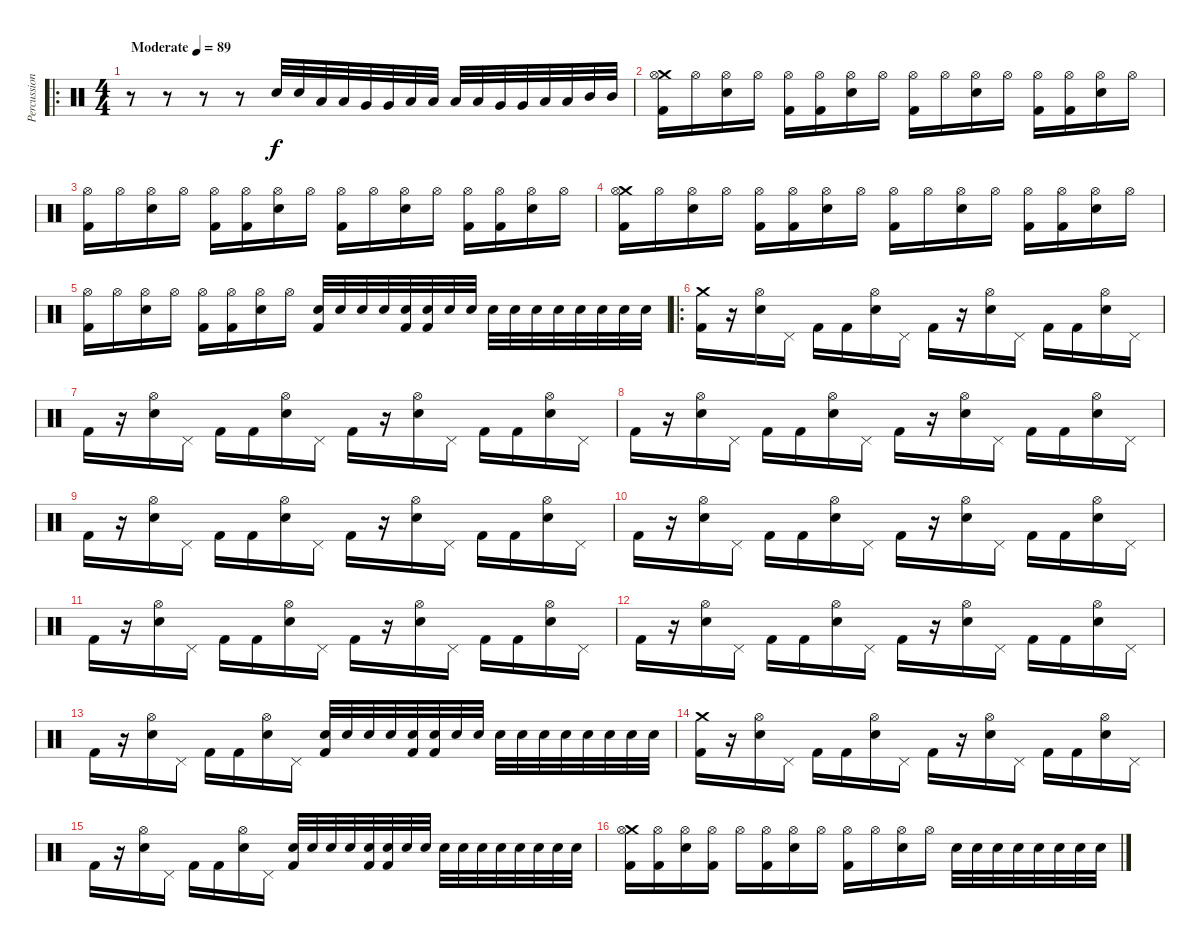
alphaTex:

\track ("Percussion" "Percussion") {instrument percussion}
\staff {score}
\articulation defaults
\ro
\ts (4 4)
\tempo (89 "Moderate")
\clef neutral
\ks c
r.8{dy f} r.8 r.8 r.8 "Electric Snare (hit)".32 "Electric Snare (hit)".32 "Low Floor Tom (hit)".32 "Low Floor Tom (hit)".32 "Very Low Tom (hit)".32 "Very Low Tom (hit)".32 "Low Tom (hit)".32 "Low Tom (hit)".32 "Low Floor Tom (hit)".32 "Low Floor Tom (hit)".32 "Very Low Tom (hit)".32 "Very Low Tom (hit)".32 "Low Tom (hit)".32 "Low Tom (hit)".32 "Mid Tom (hit)".32 "Mid Tom (hit)".32 |
("Crash medium (hit)" "Hi-Hat (open)" "Kick (hit) 2").16 "Hi-Hat (open)".16 ("Hi-Hat (open)" "Electric Snare (hit)").16 "Hi-Hat (open)".16 ("Hi-Hat (open)" "Kick (hit) 2").16 ("Hi-Hat (open)" "Kick (hit) 2").16 ("Hi-Hat (open)" "Electric Snare (hit)").16 "Hi-Hat (open)".16 ("Hi-Hat (open)" "Kick (hit) 2").16 "Hi-Hat (open)".16 ("Hi-Hat (open)" "Electric Snare (hit)").16 "Hi-Hat (open)".16 ("Hi-Hat (open)" "Kick (hit) 2").16 ("Hi-Hat (open)" "Kick (hit) 2").16 ("Hi-Hat (open)" "Electric Snare (hit)").16 "Hi-Hat (open)".16 |
("Hi-Hat (open)" "Kick (hit) 2").16 "Hi-Hat (open)".16 ("Hi-Hat (open)" "Electric Snare (hit)").16 "Hi-Hat (open)".16 ("Hi-Hat (open)" "Kick (hit) 2").16 ("Hi-Hat (open)" "Kick (hit) 2").16 ("Hi-Hat (open)" "Electric Snare (hit)").16 "Hi-Hat (open)".16 ("Hi-Hat (open)" "Kick (hit) 2").16 "Hi-Hat (open)".16 ("Hi-Hat (open)" "Electric Snare (hit)").16 "Hi-Hat (open)".16 ("Hi-Hat (open)" "Kick (hit) 2").16 ("Hi-Hat (open)" "Kick (hit) 2").16 ("Hi-Hat (open)" "Electric Snare (hit)").16 "Hi-Hat (open)".16 |
("Crash medium (hit)" "Hi-Hat (open)" "Kick (hit) 2").16 "Hi-Hat (open)".16 ("Hi-Hat (open)" "Electric Snare (hit)").16 "Hi-Hat (open)".16 ("Hi-Hat (open)" "Kick (hit) 2").16 ("Hi-Hat (open)" "Kick (hit) 2").16 ("Hi-Hat (open)" "Electric Snare (hit)").16 "Hi-Hat (open)".16 ("Hi-Hat (open)" "Kick (hit) 2").16 "Hi-Hat (open)".16 ("Hi-Hat (open)" "Electric Snare (hit)").16 "Hi-Hat (open)".16 ("Hi-Hat (open)" "Kick (hit) 2").16 ("Hi-Hat (open)" "Kick (hit) 2").16 ("Hi-Hat (open)" "Electric Snare (hit)").16 "Hi-Hat (open)".16 |
("Hi-Hat (open)" "Kick (hit) 2").16 "Hi-Hat (open)".16 ("Hi-Hat (open)" "Electric Snare (hit)").16 "Hi-Hat (open)".16 ("Hi-Hat (open)" "Kick (hit) 2").16 ("Hi-Hat (open)" "Kick (hit) 2").16 ("Hi-Hat (open)" "Electric Snare (hit)").16 "Hi-Hat (open)".16 ("Electric Snare (hit)" "Kick (hit) 2").32 "Electric Snare (hit)".32 "Electric Snare (hit)".32 "Electric Snare (hit)".32 ("Electric Snare (hit)" "Kick (hit) 2").32 ("Electric Snare (hit)" "Kick (hit) 2").32 "Electric Snare (hit)".32 "Electric Snare (hit)".32 "Electric Snare (hit)".32 "Electric Snare (hit)".32 "Electric Snare (hit)".32 "Electric Snare (hit)".32 "Electric Snare (hit)".32 "Electric Snare (hit)".32 "Electric Snare (hit)".32 "Electric Snare (hit)".32 |
\ro
("Crash medium (hit)" "Kick (hit) 2").16 r.16 ("Hi-Hat (open)" "Electric Snare (hit)").16 "Pedal Hi-Hat (hit)".16 "Kick (hit) 2".16 "Kick (hit) 2".16 ("Hi-Hat (open)" "Electric Snare (hit)").16 "Pedal Hi-Hat (hit)".16 "Kick (hit) 2".16 r.16 ("Hi-Hat (open)" "Electric Snare (hit)").16 "Pedal Hi-Hat (hit)".16 "Kick (hit) 2".16 "Kick (hit) 2".16 ("Hi-Hat (open)" "Electric Snare (hit)").16 "Pedal Hi-Hat (hit)".16 |
"Kick (hit) 2".16 r.16 ("Hi-Hat (open)" "Electric Snare (hit)").16 "Pedal Hi-Hat (hit)".16 "Kick (hit) 2".16 "Kick (hit) 2".16 ("Hi-Hat (open)" "Electric Snare (hit)").16 "Pedal Hi-Hat (hit)".16 "Kick (hit) 2".16 r.16 ("Hi-Hat (open)" "Electric Snare (hit)").16 "Pedal Hi-Hat (hit)".16 "Kick (hit) 2".16 "Kick (hit) 2".16 ("Hi-Hat (open)" "Electric Snare (hit)").16 "Pedal Hi-Hat (hit)".16 |
"Kick (hit) 2".16 r.16 ("Hi-Hat (open)" "Electric Snare (hit)").16 "Pedal Hi-Hat (hit)".16 "Kick (hit) 2".16 "Kick (hit) 2".16 ("Hi-Hat (open)" "Electric Snare (hit)").16 "Pedal Hi-Hat (hit)".16 "Kick (hit) 2".16 r.16 ("Hi-Hat (open)" "Electric Snare (hit)").16 "Pedal Hi-Hat (hit)".16 "Kick (hit) 2".16 "Kick (hit) 2".16 ("Hi-Hat (open)" "Electric Snare (hit)").16 "Pedal Hi-Hat (hit)".16 |
"Kick (hit) 2".16 r.16 ("Hi-Hat (open)" "Electric Snare (hit)").16 "Pedal Hi-Hat (hit)".16 "Kick (hit) 2".16 "Kick (hit) 2".16 ("Hi-Hat (open)" "Electric Snare (hit)").16 "Pedal Hi-Hat (hit)".16 "Kick (hit) 2".16 r.16 ("Hi-Hat (open)" "Electric Snare (hit)").16 "Pedal Hi-Hat (hit)".16 "Kick (hit) 2".16 "Kick (hit) 2".16 ("Hi-Hat (open)" "Electric Snare (hit)").16 "Pedal Hi-Hat (hit)".16 |
"Kick (hit) 2".16 r.16 ("Hi-Hat (open)" "Electric Snare (hit)").16 "Pedal Hi-Hat (hit)".16 "Kick (hit) 2".16 "Kick (hit) 2".16 ("Hi-Hat (open)" "Electric Snare (hit)").16 "Pedal Hi-Hat (hit)".16 "Kick (hit) 2".16 r.16 ("Hi-Hat (open)" "Electric Snare (hit)").16 "Pedal Hi-Hat (hit)".16 "Kick (hit) 2".16 "Kick (hit) 2".16 ("Hi-Hat (open)" "Electric Snare (hit)").16 "Pedal Hi-Hat (hit)".16 |
"Kick (hit) 2".16 r.16 ("Hi-Hat (open)" "Electric Snare (hit)").16 "Pedal Hi-Hat (hit)".16 "Kick (hit) 2".16 "Kick (hit) 2".16 ("Hi-Hat (open)" "Electric Snare (hit)").16 "Pedal Hi-Hat (hit)".16 "Kick (hit) 2".16 r.16 ("Hi-Hat (open)" "Electric Snare (hit)").16 "Pedal Hi-Hat (hit)".16 "Kick (hit) 2".16 "Kick (hit) 2".16 ("Hi-Hat (open)" "Electric Snare (hit)").16 "Pedal Hi-Hat (hit)".16 |
"Kick (hit) 2".16 r.16 ("Hi-Hat (open)" "Electric Snare (hit)").16 "Pedal Hi-Hat (hit)".16 "Kick (hit) 2".16 "Kick (hit) 2".16 ("Hi-Hat (open)" "Electric Snare (hit)").16 "Pedal Hi-Hat (hit)".16 "Kick (hit) 2".16 r.16 ("Hi-Hat (open)" "Electric Snare (hit)").16 "Pedal Hi-Hat (hit)".16 "Kick (hit) 2".16 "Kick (hit) 2".16 ("Hi-Hat (open)" "Electric Snare (hit)").16 "Pedal Hi-Hat (hit)".16 |
"Kick (hit) 2".16 r.16 ("Hi-Hat (open)" "Electric Snare (hit)").16 "Pedal Hi-Hat (hit)".16 "Kick (hit) 2".16 "Kick (hit) 2".16 ("Hi-Hat (open)" "Electric Snare (hit)").16 "Pedal Hi-Hat (hit)".16 ("Electric Snare (hit)" "Kick (hit) 2").32 "Electric Snare (hit)".32 "Electric Snare (hit)".32 "Electric Snare (hit)".32 ("Electric Snare (hit)" "Kick (hit) 2").32 ("Electric Snare (hit)" "Kick (hit) 2").32 "Electric Snare (hit)".32 "Electric Snare (hit)".32 "Electric Snare (hit)".32 "Electric Snare (hit)".32 "Electric Snare (hit)".32 "Electric Snare (hit)".32 "Electric Snare (hit)".32 "Electric Snare (hit)".32 "Electric Snare (hit)".32 "Electric Snare (hit)".32 |
("Crash medium (hit)" "Kick (hit) 2").16 r.16 ("Hi-Hat (open)" "Electric Snare (hit)").16 "Pedal Hi-Hat (hit)".16 "Kick (hit) 2".16 "Kick (hit) 2".16 ("Hi-Hat (open)" "Electric Snare (hit)").16 "Pedal Hi-Hat (hit)".16 "Kick (hit) 2".16 r.16 ("Hi-Hat (open)" "Electric Snare (hit)").16 "Pedal Hi-Hat (hit)".16 "Kick (hit) 2".16 "Kick (hit) 2".16 ("Hi-Hat (open)" "Electric Snare (hit)").16 "Pedal Hi-Hat (hit)".16 |
"Kick (hit) 2".16 r.16 ("Hi-Hat (open)" "Electric Snare (hit)").16 "Pedal Hi-Hat (hit)".16 "Kick (hit) 2".16 "Kick (hit) 2".16 ("Hi-Hat (open)" "Electric Snare (hit)").16 "Pedal Hi-Hat (hit)".16 ("Electric Snare (hit)" "Kick (hit) 2").32 "Electric Snare (hit)".32 "Electric Snare (hit)".32 "Electric Snare (hit)".32 ("Electric Snare (hit)" "Kick (hit) 2").32 ("Electric Snare (hit)" "Kick (hit) 2").32 "Electric Snare (hit)".32 "Electric Snare (hit)".32 "Electric Snare (hit)".32 "Electric Snare (hit)".32 "Electric Snare (hit)".32 "Electric Snare (hit)".32 "Electric Snare (hit)".32 "Electric Snare (hit)".32 "Electric Snare (hit)".32 "Electric Snare (hit)".32 |
("Crash medium (hit)" "Hi-Hat (open)" "Kick (hit) 2").16 ("Hi-Hat (open)" "Kick (hit) 2").16 ("Hi-Hat (open)" "Electric Snare (hit)").16 ("Hi-Hat (open)" "Kick (hit) 2").16 "Hi-Hat (open)".16 ("Hi-Hat (open)" "Kick (hit) 2").16 ("Hi-Hat (open)" "Electric Snare (hit)").16 "Hi-Hat (open)".16 ("Hi-Hat (open)" "Kick (hit) 2").16 "Hi-Hat (open)".16 ("Hi-Hat (open)" "Electric Snare (hit)").16 "Hi-Hat (open)".16 "Electric Snare (hit)".32 "Electric Snare (hit)".32 "Electric Snare (hit)".32 "Electric Snare (hit)".32 "Electric Snare (hit)".32 "Electric Snare (hit)".32 "Electric Snare (hit)".32 "Electric Snare (hit)".32
